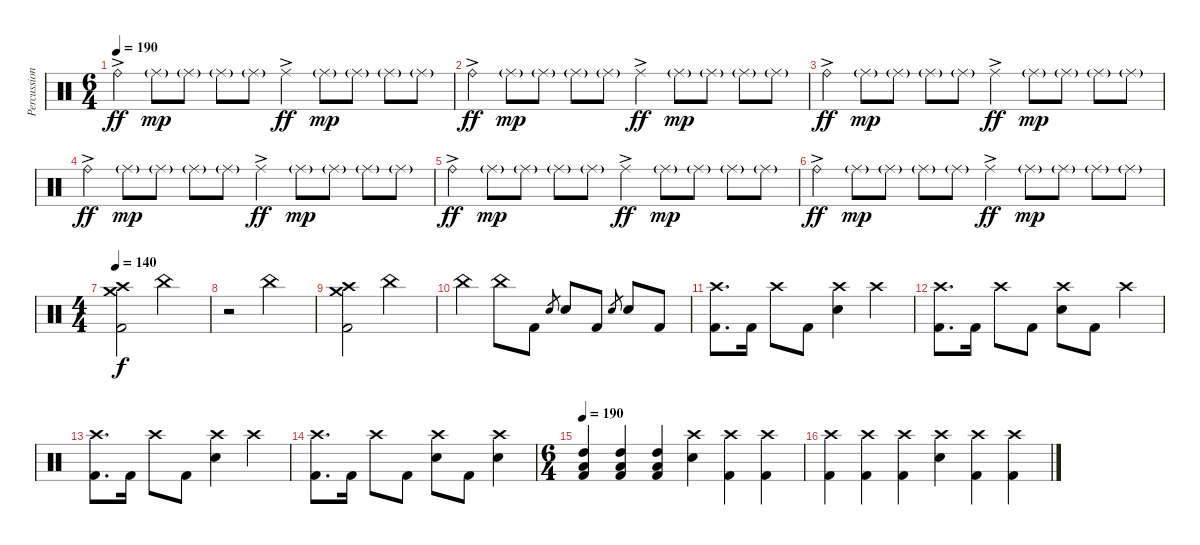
\track ("Percussion" "Percussion") {instrument percussion}
\staff {score}
\articulation defaults
\ts (6 4)
\tempo 190
\clef neutral
\ks c "Ride (bell)"{ac}.4{dy ff} "Ride (middle)"{g}.8{dy mp} "Ride (middle)"{g}.8 "Ride (middle)"{g}.8 "Ride (middle)"{g}.8 "Ride (middle)"{ac}.4{dy ff} "Ride (middle)"{g}.8{dy mp} "Ride (middle)"{g}.8 "Ride (middle)"{g}.8 "Ride (middle)"{g}.8
|
"Ride (bell)"{ac}.4{dy ff} "Ride (middle)"{g}.8{dy mp} "Ride (middle)"{g}.8 "Ride (middle)"{g}.8 "Ride (middle)"{g}.8 "Ride (middle)"{ac}.4{dy ff} "Ride (middle)"{g}.8{dy mp} "Ride (middle)"{g}.8 "Ride (middle)"{g}.8 "Ride (middle)"{g}.8 |
"Ride (bell)"{ac}.4{dy ff} "Ride (middle)"{g}.8{dy mp} "Ride (middle)"{g}.8 "Ride (middle)"{g}.8 "Ride (middle)"{g}.8 "Ride (middle)"{ac}.4{dy ff} "Ride (middle)"{g}.8{dy mp} "Ride (middle)"{g}.8 "Ride (middle)"{g}.8 "Ride (middle)"{g}.8 |
"Ride (bell)"{ac}.4{dy ff} "Ride (middle)"{g}.8{dy mp} "Ride (middle)"{g}.8 "Ride (middle)"{g}.8 "Ride (middle)"{g}.8 "Ride (middle)"{ac}.4{dy ff} "Ride (middle)"{g}.8{dy mp} "Ride (middle)"{g}.8 "Ride (middle)"{g}.8 "Ride (middle)"{g}.8 |
"Ride (bell)"{ac}.4{dy ff} "Ride (middle)"{g}.8{dy mp} "Ride (middle)"{g}.8 "Ride (middle)"{g}.8 "Ride (middle)"{g}.8 "Ride (middle)"{ac}.4{dy ff} "Ride (middle)"{g}.8{dy mp} "Ride (middle)"{g}.8 "Ride (middle)"{g}.8 "Ride (middle)"{g}.8 |
"Ride (bell)"{ac}.4{dy ff} "Ride (middle)"{g}.8{dy mp} "Ride (middle)"{g}.8 "Ride (middle)"{g}.8 "Ride (middle)"{g}.8 "Ride (middle)"{ac}.4{dy ff} "Ride (middle)"{g}.8{dy mp} "Ride (middle)"{g}.8 "Ride (middle)"{g}.8 "Ride (middle)"{g}.8 |
\ts (4 4)
\tempo 140
("Crash medium (hit)" "Crash high (hit)" "Kick (hit) 2").2{dy f} "China (hit)".2 |
r.2 "China (hit)".2 |
("Crash medium (hit)" "Crash high (hit)" "Kick (hit) 2").2 "China (hit)".2 |
"China (hit)".4 "China (hit)".8 "Kick (hit) 2".8 "Electric Snare (hit)".8{gr} "Electric Snare (hit)".8 "Kick (hit) 2".8 "Electric Snare (hit)".8{gr} "Electric Snare (hit)".8 "Kick (hit) 2".8 |
("Crash high (hit)" "Kick (hit) 2").8{d} "Kick (hit) 2".16 "Crash high (hit)".8 "Kick (hit) 2".8 ("Crash high (hit)" "Electric Snare (hit)").4 "Crash high (hit)".4 |
("Crash high (hit)" "Kick (hit) 2").8{d} "Kick (hit) 2".16 "Crash high (hit)".8 "Kick (hit) 2".8 ("Crash high (hit)" "Electric Snare (hit)").8 "Kick (hit) 2".8 "Crash high (hit)".4 |
("Crash high (hit)" "Kick (hit) 2").8{d} "Kick (hit) 2".16 "Crash high (hit)".8 "Kick (hit) 2".8 ("Crash high (hit)" "Electric Snare (hit)").4 "Crash high (hit)".4 |
("Crash high (hit)" "Kick (hit) 2").8{d} "Kick (hit) 2".16 "Crash high (hit)".8 "Kick (hit) 2".8 ("Crash high (hit)" "Electric Snare (hit)").8 "Kick (hit) 2".8 ("Crash high (hit)" "Electric Snare (hit)").4 |
\ts (6 4)
\tempo 190
("High Tom (hit)" "Low Tom (hit)" "Kick (hit) 2").4 ("High Tom (hit)" "Low Tom (hit)" "Kick (hit) 2").4 ("High Tom (hit)" "Low Tom (hit)" "Kick (hit) 2").4 ("Crash high (hit)" "Electric Snare (hit)").4 ("Crash high (hit)" "Kick (hit) 2").4 ("Crash high (hit)" "Kick (hit) 2").4 |
("Crash high (hit)" "Kick (hit) 2").4 ("Crash high (hit)" "Kick (hit) 2").4 ("Crash high (hit)" "Kick (hit) 2").4 ("Crash high (hit)" "Electric Snare (hit)").4 ("Crash high (hit)" "Kick (hit) 2").4 ("Crash high (hit)" "Kick (hit) 2").4
